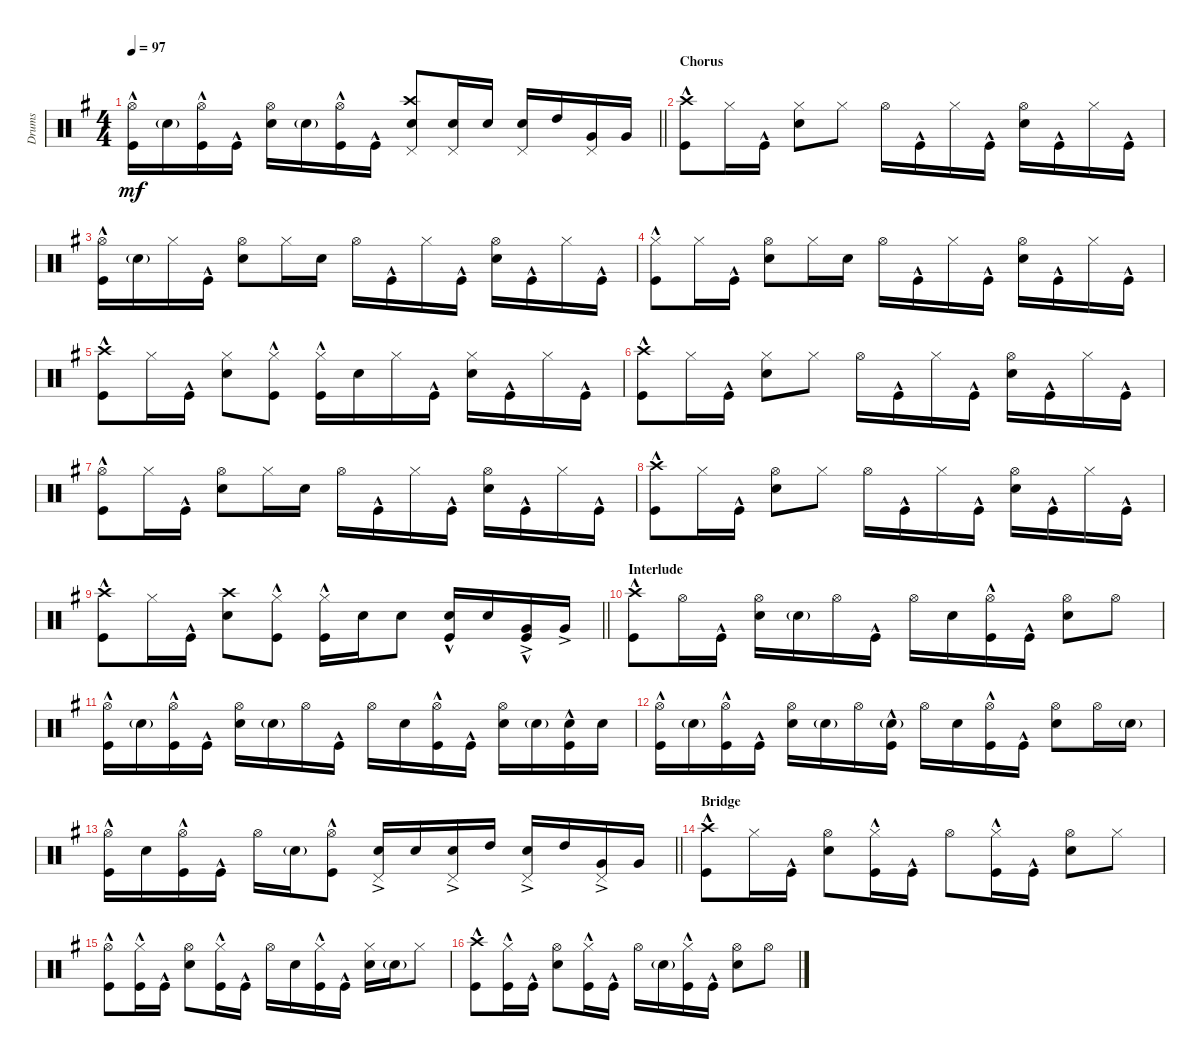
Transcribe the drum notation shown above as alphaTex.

\track ("Drums" "Drums") {instrument percussion}
\staff {score}
\articulation defaults
\ts (4 4)
\tempo 97
\clef neutral
\barLineRight lightlight
\ks eminor
("Hi-Hat (open)" "Kick (hit)"{hac}).16{dy mf} "Snare (hit) 2"{g}.16 ("Hi-Hat (open)" "Kick (hit)"{hac}).16 "Kick (hit)"{hac}.16 ("Hi-Hat (open)" "Snare (hit) 2").16 "Snare (hit) 2"{g}.16 ("Hi-Hat (open)" "Kick (hit)"{hac}).16 "Kick (hit)"{hac}.16 ("Crash high (hit)" "Snare (hit) 2" "Pedal Hi-Hat (hit)").8 ("Snare (hit) 2" "Pedal Hi-Hat (hit)").16 "Snare (hit) 2".16 ("Snare (hit) 2" "Pedal Hi-Hat (hit)").16 "High Tom (hit)".16 ("Very Low Tom (hit)" "Pedal Hi-Hat (hit)").16 "Very Low Tom (hit)".16 |
\section ("" "Chorus")
("Crash high (hit)" "Kick (hit)"{hac}).8 "Hi-Hat (closed)".16 "Kick (hit)"{hac}.16 ("Hi-Hat (closed)" "Snare (hit) 2").8 "Hi-Hat (closed)".8 "Hi-Hat (open)".16 "Kick (hit)"{hac}.16 "Hi-Hat (closed)".16 "Kick (hit)"{hac}.16 ("Hi-Hat (open)" "Snare (hit) 2").16 "Kick (hit)"{hac}.16 "Hi-Hat (closed)".16 "Kick (hit)"{hac}.16 |
("Hi-Hat (open)" "Kick (hit)"{hac}).16 "Snare (hit) 2"{g}.16 "Hi-Hat (closed)".16 "Kick (hit)"{hac}.16 ("Hi-Hat (open)" "Snare (hit) 2").8 "Hi-Hat (closed)".16 "Snare (hit) 2".16 "Hi-Hat (open)".16 "Kick (hit)"{hac}.16 "Hi-Hat (closed)".16 "Kick (hit)"{hac}.16 ("Hi-Hat (open)" "Snare (hit) 2").16 "Kick (hit)"{hac}.16 "Hi-Hat (closed)".16 "Kick (hit)"{hac}.16 |
("Hi-Hat (closed)" "Kick (hit)"{hac}).8 "Hi-Hat (closed)".16 "Kick (hit)"{hac}.16 ("Hi-Hat (open)" "Snare (hit) 2").8 "Hi-Hat (closed)".16 "Snare (hit) 2".16 "Hi-Hat (open)".16 "Kick (hit)"{hac}.16 "Hi-Hat (closed)".16 "Kick (hit)"{hac}.16 ("Hi-Hat (open)" "Snare (hit) 2").16 "Kick (hit)"{hac}.16 "Hi-Hat (closed)".16 "Kick (hit)"{hac}.16 |
("Crash high (hit)" "Kick (hit)"{hac}).8 "Hi-Hat (closed)".16 "Kick (hit)"{hac}.16 ("Hi-Hat (closed)" "Snare (hit) 2").8 ("Hi-Hat (closed)" "Kick (hit)"{hac}).8 ("Hi-Hat (closed)" "Kick (hit)"{hac}).16 "Snare (hit) 2".16 "Hi-Hat (closed)".16 "Kick (hit)"{hac}.16 ("Hi-Hat (closed)" "Snare (hit) 2").16 "Kick (hit)"{hac}.16 "Hi-Hat (closed)".16 "Kick (hit)"{hac}.16 |
("Crash high (hit)" "Kick (hit)"{hac}).8 "Hi-Hat (closed)".16 "Kick (hit)"{hac}.16 ("Hi-Hat (closed)" "Snare (hit) 2").8 "Hi-Hat (closed)".8 "Hi-Hat (open)".16 "Kick (hit)"{hac}.16 "Hi-Hat (closed)".16 "Kick (hit)"{hac}.16 ("Hi-Hat (open)" "Snare (hit) 2").16 "Kick (hit)"{hac}.16 "Hi-Hat (closed)".16 "Kick (hit)"{hac}.16 |
("Hi-Hat (open)" "Kick (hit)"{hac}).8 "Hi-Hat (closed)".16 "Kick (hit)"{hac}.16 ("Hi-Hat (open)" "Snare (hit) 2").8 "Hi-Hat (closed)".16 "Snare (hit) 2".16 "Hi-Hat (open)".16 "Kick (hit)"{hac}.16 "Hi-Hat (closed)".16 "Kick (hit)"{hac}.16 ("Hi-Hat (open)" "Snare (hit) 2").16 "Kick (hit)"{hac}.16 "Hi-Hat (closed)".16 "Kick (hit)"{hac}.16 |
("Crash high (hit)" "Kick (hit)"{hac}).8 "Hi-Hat (closed)".16 "Kick (hit)"{hac}.16 ("Hi-Hat (open)" "Snare (hit) 2").8 "Hi-Hat (closed)".8 "Hi-Hat (open)".16 "Kick (hit)"{hac}.16 "Hi-Hat (closed)".16 "Kick (hit)"{hac}.16 ("Hi-Hat (open)" "Snare (hit) 2").16 "Kick (hit)"{hac}.16 "Hi-Hat (closed)".16 "Kick (hit)"{hac}.16 |
\barLineRight lightlight
("Crash high (hit)" "Kick (hit)"{hac}).8 "Hi-Hat (closed)".16 "Kick (hit)"{hac}.16 ("Crash high (hit)" "Snare (hit) 2").8 ("Hi-Hat (closed)" "Kick (hit)"{hac}).8 ("Hi-Hat (closed)" "Kick (hit)"{hac}).16 "Snare (hit) 2".16 "Snare (hit) 2".8 ("Snare (hit) 2" "Kick (hit)"{hac}).16 "Snare (hit) 2".16 ("Very Low Tom (hit)"{ac} "Kick (hit)"{hac}).16 "Very Low Tom (hit)"{ac}.16 |
\section ("" "Interlude")
("Crash high (hit)" "Kick (hit)"{hac}).8 "Hi-Hat (open)".16 "Kick (hit)"{hac}.16 ("Hi-Hat (open)" "Snare (hit) 2").16 "Snare (hit) 2"{g}.16 "Hi-Hat (open)".16 "Kick (hit)"{hac}.16 "Hi-Hat (open)".16 "Snare (hit) 2".16 ("Hi-Hat (open)" "Kick (hit)"{hac}).16 "Kick (hit)"{hac}.16 ("Hi-Hat (open)" "Snare (hit) 2").8 "Hi-Hat (open)".8 |
("Hi-Hat (open)" "Kick (hit)"{hac}).16 "Snare (hit) 2"{g}.16 ("Hi-Hat (open)" "Kick (hit)"{hac}).16 "Kick (hit)"{hac}.16 ("Hi-Hat (open)" "Snare (hit) 2").16 "Snare (hit) 2"{g}.16 "Hi-Hat (open)".16 "Kick (hit)"{hac}.16 "Hi-Hat (open)".16 "Snare (hit) 2".16 ("Hi-Hat (open)" "Kick (hit)"{hac}).16 "Kick (hit)"{hac}.16 ("Hi-Hat (open)" "Snare (hit) 2").16 "Snare (hit) 2"{g}.16 ("Snare (hit) 2" "Kick (hit)"{hac}).16 "Snare (hit) 2".16 |
("Hi-Hat (open)" "Kick (hit)"{hac}).16 "Snare (hit) 2"{g}.16 ("Hi-Hat (open)" "Kick (hit)"{hac}).16 "Kick (hit)"{hac}.16 ("Hi-Hat (open)" "Snare (hit) 2").16 "Snare (hit) 2"{g}.16 "Hi-Hat (open)".16 ("Snare (hit) 2"{g} "Kick (hit)"{hac}).16 "Hi-Hat (open)".16 "Snare (hit) 2".16 ("Hi-Hat (open)" "Kick (hit)"{hac}).16 "Kick (hit)"{hac}.16 ("Hi-Hat (open)" "Snare (hit) 2").8 "Hi-Hat (open)".16 "Snare (hit) 2"{g}.16 |
\barLineRight lightlight
("Hi-Hat (open)" "Kick (hit)"{hac}).16 "Snare (hit) 2".16 ("Hi-Hat (open)" "Kick (hit)"{hac}).16 "Kick (hit)"{hac}.16 "Hi-Hat (open)".16 "Snare (hit) 2"{g}.16 ("Hi-Hat (open)" "Kick (hit)"{hac}).8 ("Snare (hit) 2" "Pedal Hi-Hat (hit)"{ac}).16 "Snare (hit) 2".16 ("Snare (hit) 2" "Pedal Hi-Hat (hit)"{ac}).16 "High Tom (hit)".16 ("Snare (hit) 2" "Pedal Hi-Hat (hit)"{ac}).16 "High Tom (hit)".16 ("Very Low Tom (hit)" "Pedal Hi-Hat (hit)"{ac}).16 "Very Low Tom (hit)".16 |
\section ("" "Bridge")
("Crash high (hit)" "Kick (hit)"{hac}).8 "Hi-Hat (closed)".16 "Kick (hit)"{hac}.16 ("Hi-Hat (open)" "Snare (hit) 2").8 ("Hi-Hat (closed)" "Kick (hit)"{hac}).16 "Kick (hit)"{hac}.16 "Hi-Hat (open)".8 ("Hi-Hat (closed)" "Kick (hit)"{hac}).16 "Kick (hit)"{hac}.16 ("Hi-Hat (open)" "Snare (hit) 2").8 "Hi-Hat (closed)".8 |
("Hi-Hat (open)" "Kick (hit)"{hac}).8 ("Hi-Hat (closed)" "Kick (hit)"{hac}).16 "Kick (hit)"{hac}.16 ("Hi-Hat (open)" "Snare (hit) 2").8 ("Hi-Hat (closed)" "Kick (hit)"{hac}).16 "Kick (hit)"{hac}.16 "Hi-Hat (open)".16 "Snare (hit) 2".16 ("Hi-Hat (closed)" "Kick (hit)"{hac}).16 "Kick (hit)"{hac}.16 ("Hi-Hat (closed)" "Snare (hit) 2").16 "Snare (hit) 2"{g}.16 "Hi-Hat (closed)".8 |
("Crash high (hit)" "Kick (hit)"{hac}).8 ("Hi-Hat (closed)" "Kick (hit)"{hac}).16 "Kick (hit)"{hac}.16 ("Hi-Hat (open)" "Snare (hit) 2").8 ("Hi-Hat (closed)" "Kick (hit)"{hac}).16 "Kick (hit)"{hac}.16 "Hi-Hat (open)".16 "Snare (hit) 2"{g}.16 ("Hi-Hat (closed)" "Kick (hit)"{hac}).16 "Kick (hit)"{hac}.16 ("Hi-Hat (open)" "Snare (hit) 2").8 "Hi-Hat (open)".8
